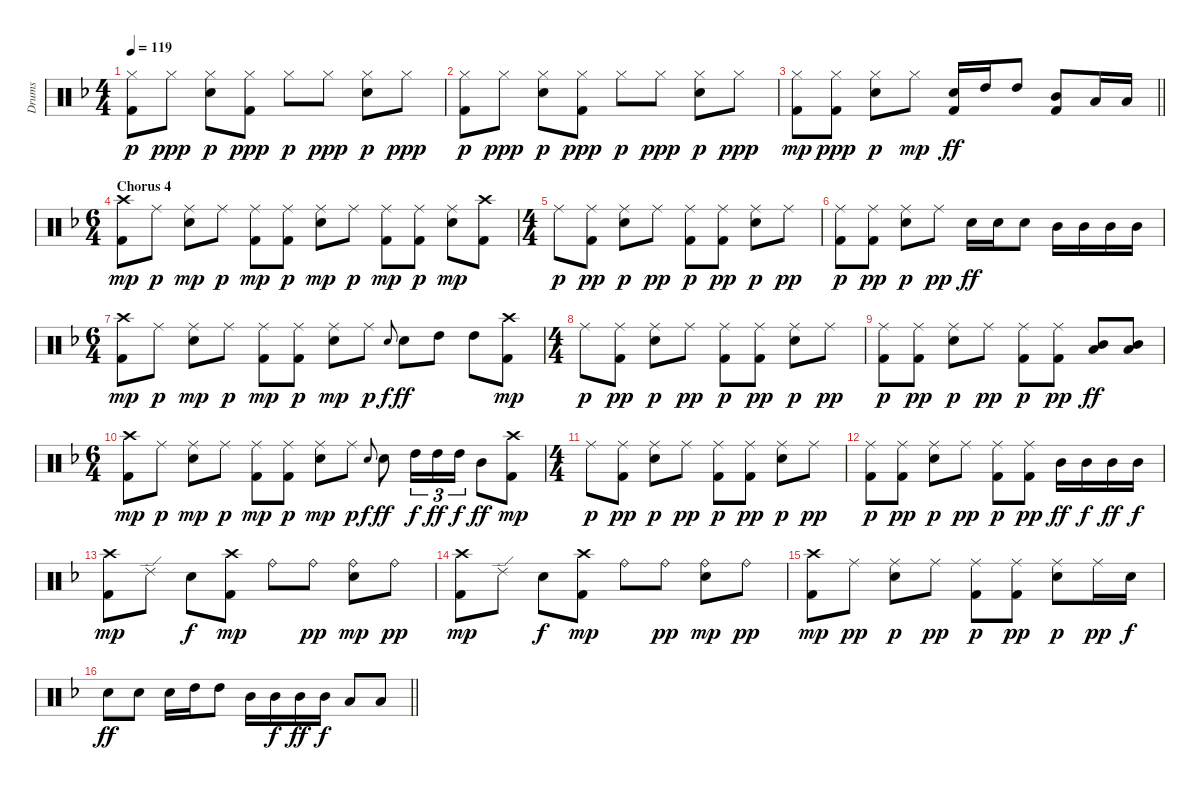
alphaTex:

\track ("Drums" "Drums") {instrument percussion}
\staff {score}
\articulation defaults
\ts (4 4)
\tempo 119
\clef neutral
\ks f
("Hi-Hat (closed)" "Kick (hit) 2").8{dy p} "Hi-Hat (closed)".8{dy ppp} ("Hi-Hat (closed)" "Electric Snare (hit)").8{dy p} ("Hi-Hat (closed)" "Kick (hit) 2").8{dy ppp} "Hi-Hat (closed)".8{dy p} "Hi-Hat (closed)".8{dy ppp} ("Hi-Hat (closed)" "Electric Snare (hit)").8{dy p} "Hi-Hat (closed)".8{dy ppp} |
("Hi-Hat (closed)" "Kick (hit) 2").8{dy p} "Hi-Hat (closed)".8{dy ppp} ("Hi-Hat (closed)" "Electric Snare (hit)").8{dy p} ("Hi-Hat (closed)" "Kick (hit) 2").8{dy ppp} "Hi-Hat (closed)".8{dy p} "Hi-Hat (closed)".8{dy ppp} ("Hi-Hat (closed)" "Electric Snare (hit)").8{dy p} "Hi-Hat (closed)".8{dy ppp} |
\barLineRight lightlight
("Hi-Hat (closed)" "Kick (hit) 2").8{dy mp} ("Hi-Hat (closed)" "Kick (hit) 2").8{dy ppp} ("Hi-Hat (closed)" "Electric Snare (hit)").8{dy p} "Hi-Hat (closed)".8{dy mp} ("Electric Snare (hit)" "Kick (hit) 2").16{dy ff} "High Tom (hit)".16 "High Tom (hit)".8 ("Mid Tom (hit)" "Kick (hit) 2").8 "Low Tom (hit)".16 "Low Tom (hit)".16 |
\ts (6 4)
\section ("" "Chorus 4")
("Kick (hit) 2" "Crash high (hit)").8{dy mp} "Ride (middle)".8{dy p} ("Ride (middle)" "Electric Snare (hit)").8{dy mp} "Ride (middle)".8{dy p} ("Ride (middle)" "Kick (hit) 2").8{dy mp} ("Ride (middle)" "Kick (hit) 2").8{dy p} ("Ride (middle)" "Electric Snare (hit)").8{dy mp} "Ride (middle)".8{dy p} ("Ride (middle)" "Kick (hit) 2").8{dy mp} ("Ride (middle)" "Kick (hit) 2").8{dy p} ("Ride (middle)" "Electric Snare (hit)").8{dy mp} ("Kick (hit) 2" "Crash high (hit)").8 |
\ts (4 4)
"Ride (middle)".8{dy p} ("Ride (middle)" "Kick (hit) 2").8{dy pp} ("Ride (middle)" "Electric Snare (hit)").8{dy p} "Ride (middle)".8{dy pp} ("Ride (middle)" "Kick (hit) 2").8{dy p} ("Ride (middle)" "Kick (hit) 2").8{dy pp} ("Ride (middle)" "Electric Snare (hit)").8{dy p} "Ride (middle)".8{dy pp} |
("Ride (middle)" "Kick (hit) 2").8{dy p} ("Ride (middle)" "Kick (hit) 2").8{dy pp} ("Ride (middle)" "Electric Snare (hit)").8{dy p} "Ride (middle)".8{dy pp} "Electric Snare (hit)".16{dy ff} "Electric Snare (hit)".16 "Electric Snare (hit)".8 "Mid Tom (hit)".16 "Mid Tom (hit)".16 "Mid Tom (hit)".16 "Mid Tom (hit)".16 |
\ts (6 4)
("Kick (hit) 2" "Crash high (hit)").8{dy mp} "Ride (middle)".8{dy p} ("Ride (middle)" "Electric Snare (hit)").8{dy mp} "Ride (middle)".8{dy p} ("Ride (middle)" "Kick (hit) 2").8{dy mp} ("Ride (middle)" "Kick (hit) 2").8{dy p} ("Ride (middle)" "Electric Snare (hit)").8{dy mp} "Ride (middle)".8{dy p} "Electric Snare (hit)".8{gr onbeat dy f} "Electric Snare (hit)".8{dy ff} "High Tom (hit)".8 "High Tom (hit)".8 ("Kick (hit) 2" "Crash high (hit)").8{dy mp} |
\ts (4 4)
"Ride (middle)".8{dy p} ("Ride (middle)" "Kick (hit) 2").8{dy pp} ("Ride (middle)" "Electric Snare (hit)").8{dy p} "Ride (middle)".8{dy pp} ("Ride (middle)" "Kick (hit) 2").8{dy p} ("Ride (middle)" "Kick (hit) 2").8{dy pp} ("Ride (middle)" "Electric Snare (hit)").8{dy p} "Ride (middle)".8{dy pp} |
("Ride (middle)" "Kick (hit) 2").8{dy p} ("Ride (middle)" "Kick (hit) 2").8{dy pp} ("Ride (middle)" "Electric Snare (hit)").8{dy p} "Ride (middle)".8{dy pp} ("Ride (middle)" "Kick (hit) 2").8{dy p} ("Ride (middle)" "Kick (hit) 2").8{dy pp} ("Mid Tom (hit)" "Low Tom (hit)").8{dy ff} ("Mid Tom (hit)" "Low Tom (hit)").8 |
\ts (6 4)
("Kick (hit) 2" "Crash high (hit)").8{dy mp} "Ride (middle)".8{dy p} ("Ride (middle)" "Electric Snare (hit)").8{dy mp} "Ride (middle)".8{dy p} ("Ride (middle)" "Kick (hit) 2").8{dy mp} ("Ride (middle)" "Kick (hit) 2").8{dy p} ("Ride (middle)" "Electric Snare (hit)").8{dy mp} "Ride (middle)".8{dy p} "Electric Snare (hit)".8{gr onbeat dy f} "Electric Snare (hit)".8{dy ff} "High Tom (hit)".16{tu (3 2) dy f} "High Tom (hit)".16{tu (3 2) dy ff} "High Tom (hit)".16{tu (3 2) dy f} "Mid Tom (hit)".8{dy ff} ("Kick (hit) 2" "Crash high (hit)").8{dy mp} |
\ts (4 4)
"Ride (middle)".8{dy p} ("Ride (middle)" "Kick (hit) 2").8{dy pp} ("Ride (middle)" "Electric Snare (hit)").8{dy p} "Ride (middle)".8{dy pp} ("Ride (middle)" "Kick (hit) 2").8{dy p} ("Ride (middle)" "Kick (hit) 2").8{dy pp} ("Ride (middle)" "Electric Snare (hit)").8{dy p} "Ride (middle)".8{dy pp} |
("Ride (middle)" "Kick (hit) 2").8{dy p} ("Ride (middle)" "Kick (hit) 2").8{dy pp} ("Ride (middle)" "Electric Snare (hit)").8{dy p} "Ride (middle)".8{dy pp} ("Ride (middle)" "Kick (hit) 2").8{dy p} ("Ride (middle)" "Kick (hit) 2").8{dy pp} "Mid Tom (hit)".16{dy ff} "Mid Tom (hit)".16{dy f} "Mid Tom (hit)".16{dy ff} "Mid Tom (hit)".16{dy f} |
("Crash high (hit)" "Kick (hit) 2").8{dy mp} "Ride (edge) 2".8 "Electric Snare (hit)".8{dy f} ("Kick (hit) 2" "Crash high (hit)").8{dy mp} "Ride (bell)".8 "Ride (bell)".8{dy pp} ("Ride (bell)" "Electric Snare (hit)").8{dy mp} "Ride (bell)".8{dy pp} |
("Crash high (hit)" "Kick (hit) 2").8{dy mp} "Ride (edge) 2".8 "Electric Snare (hit)".8{dy f} ("Kick (hit) 2" "Crash high (hit)").8{dy mp} "Ride (bell)".8 "Ride (bell)".8{dy pp} ("Ride (bell)" "Electric Snare (hit)").8{dy mp} "Ride (bell)".8{dy pp} |
("Crash high (hit)" "Kick (hit) 2").8{dy mp} "Ride (middle)".8{dy pp} ("Ride (middle)" "Electric Snare (hit)").8{dy p} "Ride (middle)".8{dy pp} ("Ride (middle)" "Kick (hit) 2").8{dy p} ("Ride (middle)" "Kick (hit) 2").8{dy pp} ("Ride (middle)" "Electric Snare (hit)").8{dy p} "Ride (middle)".16{dy pp} "Electric Snare (hit)".16{dy f} |
\barLineRight lightlight "Electric Snare (hit)".8{dy ff} "Electric Snare (hit)".8 "Electric Snare (hit)".16 "High Tom (hit)".16 "High Tom (hit)".8 "Mid Tom (hit)".16 "Mid Tom (hit)".16{dy f} "Mid Tom (hit)".16{dy ff} "Mid Tom (hit)".16{dy f} "Low Tom (hit)".8 "Low Tom (hit)".8
